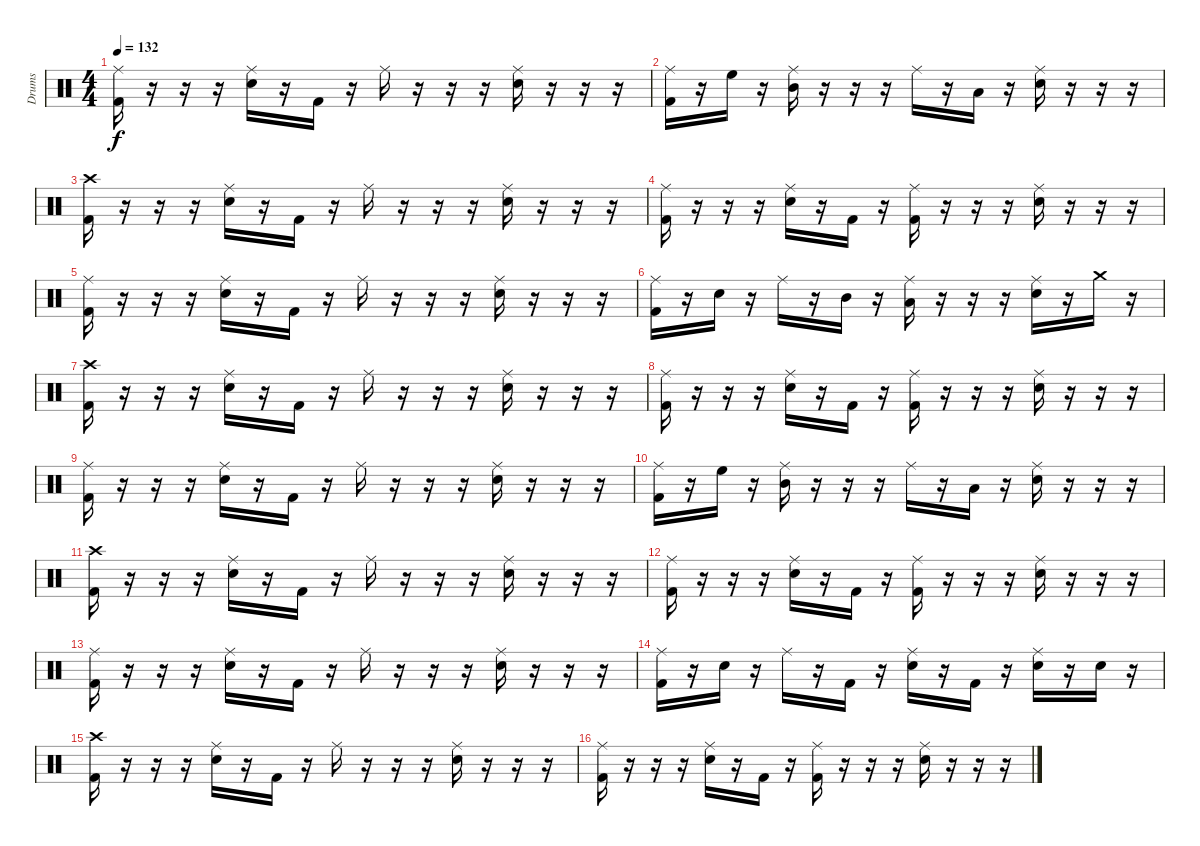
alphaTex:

\track ("Drums" "Drums") {instrument percussion}
\staff {score}
\articulation defaults
\ts (4 4)
\tempo 132
\clef neutral
\ks c
("Ride (middle)" "Kick (hit) 2").16{dy f} r.16 r.16 r.16 ("Ride (middle)" "Snare (hit) 2").16 r.16 "Kick (hit) 2".16 r.16 "Ride (middle)".16 r.16 r.16 r.16 ("Ride (middle)" "Snare (hit) 2").16 r.16 r.16 r.16 |
("Ride (middle)" "Kick (hit) 2").16 r.16 "High Floor Tom (hit)".16 r.16 ("Ride (middle)" "Mid Tom (hit)").16 r.16 r.16 r.16 "Ride (middle)".16 r.16 "Low Tom (hit)".16 r.16 ("Ride (middle)" "Snare (hit) 2").16 r.16 r.16 r.16 |
("Crash high (hit)" "Kick (hit) 2").16 r.16 r.16 r.16 ("Ride (middle)" "Snare (hit) 2").16 r.16 "Kick (hit) 2".16 r.16 "Ride (middle)".16 r.16 r.16 r.16 ("Ride (middle)" "Snare (hit) 2").16 r.16 r.16 r.16 |
("Ride (middle)" "Kick (hit) 2").16 r.16 r.16 r.16 ("Ride (middle)" "Snare (hit) 2").16 r.16 "Kick (hit) 2".16 r.16 ("Ride (middle)" "Kick (hit) 2").16 r.16 r.16 r.16 ("Ride (middle)" "Snare (hit) 2").16 r.16 r.16 r.16 |
("Ride (middle)" "Kick (hit) 2").16 r.16 r.16 r.16 ("Ride (middle)" "Snare (hit) 2").16 r.16 "Kick (hit) 2".16 r.16 "Ride (middle)".16 r.16 r.16 r.16 ("Ride (middle)" "Snare (hit) 2").16 r.16 r.16 r.16 |
("Ride (middle)" "Kick (hit) 2").16 r.16 "Snare (hit) 2".16 r.16 "Ride (middle)".16 r.16 "Mid Tom (hit)".16 r.16 ("Ride (middle)" "Low Tom (hit)").16 r.16 r.16 r.16 ("Ride (middle)" "Snare (hit) 2").16 r.16 "Crash medium (hit)".16 r.16 |
("Crash high (hit)" "Kick (hit) 2").16 r.16 r.16 r.16 ("Ride (middle)" "Snare (hit) 2").16 r.16 "Kick (hit) 2".16 r.16 "Ride (middle)".16 r.16 r.16 r.16 ("Ride (middle)" "Snare (hit) 2").16 r.16 r.16 r.16 |
("Ride (middle)" "Kick (hit) 2").16 r.16 r.16 r.16 ("Ride (middle)" "Snare (hit) 2").16 r.16 "Kick (hit) 2".16 r.16 ("Ride (middle)" "Kick (hit) 2").16 r.16 r.16 r.16 ("Ride (middle)" "Snare (hit) 2").16 r.16 r.16 r.16 |
("Ride (middle)" "Kick (hit) 2").16 r.16 r.16 r.16 ("Ride (middle)" "Snare (hit) 2").16 r.16 "Kick (hit) 2".16 r.16 "Ride (middle)".16 r.16 r.16 r.16 ("Ride (middle)" "Snare (hit) 2").16 r.16 r.16 r.16 |
("Ride (middle)" "Kick (hit) 2").16 r.16 "High Floor Tom (hit)".16 r.16 ("Ride (middle)" "Mid Tom (hit)").16 r.16 r.16 r.16 "Ride (middle)".16 r.16 "Low Tom (hit)".16 r.16 ("Ride (middle)" "Snare (hit) 2").16 r.16 r.16 r.16 |
("Crash high (hit)" "Kick (hit) 2").16 r.16 r.16 r.16 ("Ride (middle)" "Snare (hit) 2").16 r.16 "Kick (hit) 2".16 r.16 "Ride (middle)".16 r.16 r.16 r.16 ("Ride (middle)" "Snare (hit) 2").16 r.16 r.16 r.16 |
("Ride (middle)" "Kick (hit) 2").16 r.16 r.16 r.16 ("Ride (middle)" "Snare (hit) 2").16 r.16 "Kick (hit) 2".16 r.16 ("Ride (middle)" "Kick (hit) 2").16 r.16 r.16 r.16 ("Ride (middle)" "Snare (hit) 2").16 r.16 r.16 r.16 |
("Ride (middle)" "Kick (hit) 2").16 r.16 r.16 r.16 ("Ride (middle)" "Snare (hit) 2").16 r.16 "Kick (hit) 2".16 r.16 "Ride (middle)".16 r.16 r.16 r.16 ("Ride (middle)" "Snare (hit) 2").16 r.16 r.16 r.16 |
("Ride (middle)" "Kick (hit) 2").16 r.16 "Snare (hit) 2".16 r.16 "Ride (middle)".16 r.16 "Kick (hit) 2".16 r.16 ("Ride (middle)" "Snare (hit) 2").16 r.16 "Kick (hit) 2".16 r.16 ("Ride (middle)" "Snare (hit) 2").16 r.16 "Snare (hit) 2".16 r.16 |
("Crash high (hit)" "Kick (hit) 2").16 r.16 r.16 r.16 ("Ride (middle)" "Snare (hit) 2").16 r.16 "Kick (hit) 2".16 r.16 "Ride (middle)".16 r.16 r.16 r.16 ("Ride (middle)" "Snare (hit) 2").16 r.16 r.16 r.16 |
("Ride (middle)" "Kick (hit) 2").16 r.16 r.16 r.16 ("Ride (middle)" "Snare (hit) 2").16 r.16 "Kick (hit) 2".16 r.16 ("Ride (middle)" "Kick (hit) 2").16 r.16 r.16 r.16 ("Ride (middle)" "Snare (hit) 2").16 r.16 r.16 r.16
